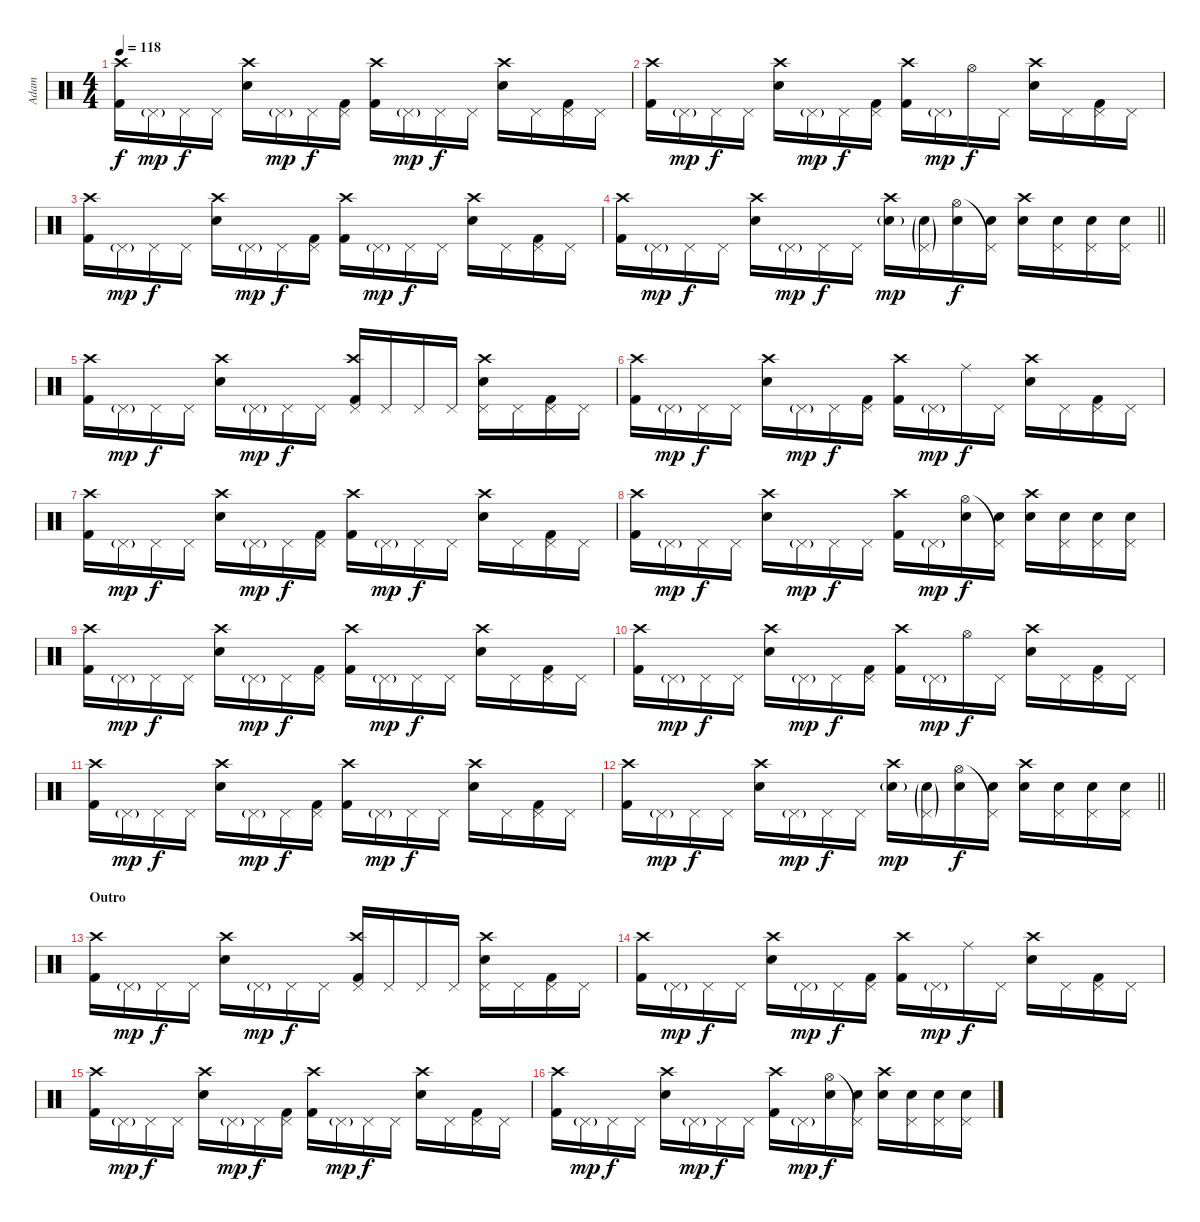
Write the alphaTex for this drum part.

\track ("Adam" "Adam") {instrument percussion}
\staff {score}
\articulation defaults
\ts (4 4)
\tempo 118
\clef neutral
\ks c
("Kick (hit) 2" "Crash high (hit)").16{dy f} "Pedal Hi-Hat (hit)"{g}.16{dy mp} "Pedal Hi-Hat (hit)".16{dy f} "Pedal Hi-Hat (hit)".16 ("Snare (hit) 2" "Crash high (hit)").16 "Pedal Hi-Hat (hit)"{g}.16{dy mp} "Pedal Hi-Hat (hit)".16{dy f} ("Pedal Hi-Hat (hit)" "Kick (hit) 2").16 ("Kick (hit) 2" "Crash high (hit)").16 "Pedal Hi-Hat (hit)"{g}.16{dy mp} "Pedal Hi-Hat (hit)".16{dy f} "Pedal Hi-Hat (hit)".16 ("Snare (hit) 2" "Crash high (hit)").16 "Pedal Hi-Hat (hit)".16 ("Pedal Hi-Hat (hit)" "Kick (hit) 2").16 "Pedal Hi-Hat (hit)".16 |
("Kick (hit) 2" "Crash high (hit)").16 "Pedal Hi-Hat (hit)"{g}.16{dy mp} "Pedal Hi-Hat (hit)".16{dy f} "Pedal Hi-Hat (hit)".16 ("Snare (hit) 2" "Crash high (hit)").16 "Pedal Hi-Hat (hit)"{g}.16{dy mp} "Pedal Hi-Hat (hit)".16{dy f} ("Pedal Hi-Hat (hit)" "Kick (hit) 2").16 ("Kick (hit) 2" "Crash high (hit)").16 "Pedal Hi-Hat (hit)"{g}.16{dy mp} "Hi-Hat (open)".16{dy f} "Pedal Hi-Hat (hit)".16 ("Snare (hit) 2" "Crash high (hit)").16 "Pedal Hi-Hat (hit)".16 ("Pedal Hi-Hat (hit)" "Kick (hit) 2").16 "Pedal Hi-Hat (hit)".16 |
("Kick (hit) 2" "Crash high (hit)").16 "Pedal Hi-Hat (hit)"{g}.16{dy mp} "Pedal Hi-Hat (hit)".16{dy f} "Pedal Hi-Hat (hit)".16 ("Snare (hit) 2" "Crash high (hit)").16 "Pedal Hi-Hat (hit)"{g}.16{dy mp} "Pedal Hi-Hat (hit)".16{dy f} ("Pedal Hi-Hat (hit)" "Kick (hit) 2").16 ("Kick (hit) 2" "Crash high (hit)").16 "Pedal Hi-Hat (hit)"{g}.16{dy mp} "Pedal Hi-Hat (hit)".16{dy f} "Pedal Hi-Hat (hit)".16 ("Snare (hit) 2" "Crash high (hit)").16 "Pedal Hi-Hat (hit)".16 ("Pedal Hi-Hat (hit)" "Kick (hit) 2").16 "Pedal Hi-Hat (hit)".16 |
\barLineRight lightlight
("Kick (hit) 2" "Crash high (hit)").16 "Pedal Hi-Hat (hit)"{g}.16{dy mp} "Pedal Hi-Hat (hit)".16{dy f} "Pedal Hi-Hat (hit)".16 ("Snare (hit) 2" "Crash high (hit)").16 "Pedal Hi-Hat (hit)"{g}.16{dy mp} "Pedal Hi-Hat (hit)".16{dy f} "Pedal Hi-Hat (hit)".16 ("Snare (hit) 2"{g} "Crash high (hit)").16{dy mp} ("Snare (hit) 2"{g} "Pedal Hi-Hat (hit)"{g}).16 ("Snare (hit) 2" "Hi-Hat (open)").16{dy f} ("Snare (hit) 2" "Pedal Hi-Hat (hit)"{t}).16 ("Snare (hit) 2" "Crash high (hit)").16 ("Snare (hit) 2" "Pedal Hi-Hat (hit)").16 ("Snare (hit) 2" "Pedal Hi-Hat (hit)").16 ("Snare (hit) 2" "Pedal Hi-Hat (hit)").16 |
("Kick (hit) 2" "Crash high (hit)").16 "Pedal Hi-Hat (hit)"{g}.16{dy mp} "Pedal Hi-Hat (hit)".16{dy f} "Pedal Hi-Hat (hit)".16 ("Snare (hit) 2" "Crash high (hit)").16 "Pedal Hi-Hat (hit)"{g}.16{dy mp} "Pedal Hi-Hat (hit)".16{dy f} "Pedal Hi-Hat (hit)".16 ("Kick (hit) 2" "Pedal Hi-Hat (hit)" "Crash high (hit)").16 "Pedal Hi-Hat (hit)".16 "Pedal Hi-Hat (hit)".16 "Pedal Hi-Hat (hit)".16 ("Snare (hit) 2" "Pedal Hi-Hat (hit)" "Crash high (hit)").16 "Pedal Hi-Hat (hit)".16 ("Pedal Hi-Hat (hit)" "Kick (hit) 2").16 "Pedal Hi-Hat (hit)".16 |
("Kick (hit) 2" "Crash high (hit)").16 "Pedal Hi-Hat (hit)"{g}.16{dy mp} "Pedal Hi-Hat (hit)".16{dy f} "Pedal Hi-Hat (hit)".16 ("Snare (hit) 2" "Crash high (hit)").16 "Pedal Hi-Hat (hit)"{g}.16{dy mp} "Pedal Hi-Hat (hit)".16{dy f} ("Pedal Hi-Hat (hit)" "Kick (hit) 2").16 ("Kick (hit) 2" "Crash high (hit)").16 "Pedal Hi-Hat (hit)"{g}.16{dy mp} "Ride (middle)".16{dy f} "Pedal Hi-Hat (hit)".16 ("Snare (hit) 2" "Crash high (hit)").16 "Pedal Hi-Hat (hit)".16 ("Pedal Hi-Hat (hit)" "Kick (hit) 2").16 "Pedal Hi-Hat (hit)".16 |
("Kick (hit) 2" "Crash high (hit)").16 "Pedal Hi-Hat (hit)"{g}.16{dy mp} "Pedal Hi-Hat (hit)".16{dy f} "Pedal Hi-Hat (hit)".16 ("Snare (hit) 2" "Crash high (hit)").16 "Pedal Hi-Hat (hit)"{g}.16{dy mp} "Pedal Hi-Hat (hit)".16{dy f} ("Pedal Hi-Hat (hit)" "Kick (hit) 2").16 ("Kick (hit) 2" "Crash high (hit)").16 "Pedal Hi-Hat (hit)"{g}.16{dy mp} "Pedal Hi-Hat (hit)".16{dy f} "Pedal Hi-Hat (hit)".16 ("Snare (hit) 2" "Crash high (hit)").16 "Pedal Hi-Hat (hit)".16 ("Pedal Hi-Hat (hit)" "Kick (hit) 2").16 "Pedal Hi-Hat (hit)".16 |
("Kick (hit) 2" "Crash high (hit)").16 "Pedal Hi-Hat (hit)"{g}.16{dy mp} "Pedal Hi-Hat (hit)".16{dy f} "Pedal Hi-Hat (hit)".16 ("Snare (hit) 2" "Crash high (hit)").16 "Pedal Hi-Hat (hit)"{g}.16{dy mp} "Pedal Hi-Hat (hit)".16{dy f} "Pedal Hi-Hat (hit)".16 ("Kick (hit) 2" "Crash high (hit)").16 "Pedal Hi-Hat (hit)"{g}.16{dy mp} ("Snare (hit) 2" "Hi-Hat (open)").16{dy f} ("Snare (hit) 2" "Pedal Hi-Hat (hit)"{t}).16 ("Snare (hit) 2" "Crash high (hit)").16 ("Snare (hit) 2" "Pedal Hi-Hat (hit)").16 ("Snare (hit) 2" "Pedal Hi-Hat (hit)").16 ("Snare (hit) 2" "Pedal Hi-Hat (hit)").16 |
("Kick (hit) 2" "Crash high (hit)").16 "Pedal Hi-Hat (hit)"{g}.16{dy mp} "Pedal Hi-Hat (hit)".16{dy f} "Pedal Hi-Hat (hit)".16 ("Snare (hit) 2" "Crash high (hit)").16 "Pedal Hi-Hat (hit)"{g}.16{dy mp} "Pedal Hi-Hat (hit)".16{dy f} ("Pedal Hi-Hat (hit)" "Kick (hit) 2").16 ("Kick (hit) 2" "Crash high (hit)").16 "Pedal Hi-Hat (hit)"{g}.16{dy mp} "Pedal Hi-Hat (hit)".16{dy f} "Pedal Hi-Hat (hit)".16 ("Snare (hit) 2" "Crash high (hit)").16 "Pedal Hi-Hat (hit)".16 ("Pedal Hi-Hat (hit)" "Kick (hit) 2").16 "Pedal Hi-Hat (hit)".16 |
("Kick (hit) 2" "Crash high (hit)").16 "Pedal Hi-Hat (hit)"{g}.16{dy mp} "Pedal Hi-Hat (hit)".16{dy f} "Pedal Hi-Hat (hit)".16 ("Snare (hit) 2" "Crash high (hit)").16 "Pedal Hi-Hat (hit)"{g}.16{dy mp} "Pedal Hi-Hat (hit)".16{dy f} ("Pedal Hi-Hat (hit)" "Kick (hit) 2").16 ("Kick (hit) 2" "Crash high (hit)").16 "Pedal Hi-Hat (hit)"{g}.16{dy mp} "Hi-Hat (open)".16{dy f} "Pedal Hi-Hat (hit)".16 ("Snare (hit) 2" "Crash high (hit)").16 "Pedal Hi-Hat (hit)".16 ("Pedal Hi-Hat (hit)" "Kick (hit) 2").16 "Pedal Hi-Hat (hit)".16 |
("Kick (hit) 2" "Crash high (hit)").16 "Pedal Hi-Hat (hit)"{g}.16{dy mp} "Pedal Hi-Hat (hit)".16{dy f} "Pedal Hi-Hat (hit)".16 ("Snare (hit) 2" "Crash high (hit)").16 "Pedal Hi-Hat (hit)"{g}.16{dy mp} "Pedal Hi-Hat (hit)".16{dy f} ("Pedal Hi-Hat (hit)" "Kick (hit) 2").16 ("Kick (hit) 2" "Crash high (hit)").16 "Pedal Hi-Hat (hit)"{g}.16{dy mp} "Pedal Hi-Hat (hit)".16{dy f} "Pedal Hi-Hat (hit)".16 ("Snare (hit) 2" "Crash high (hit)").16 "Pedal Hi-Hat (hit)".16 ("Pedal Hi-Hat (hit)" "Kick (hit) 2").16 "Pedal Hi-Hat (hit)".16 |
\barLineRight lightlight
("Kick (hit) 2" "Crash high (hit)").16 "Pedal Hi-Hat (hit)"{g}.16{dy mp} "Pedal Hi-Hat (hit)".16{dy f} "Pedal Hi-Hat (hit)".16 ("Snare (hit) 2" "Crash high (hit)").16 "Pedal Hi-Hat (hit)"{g}.16{dy mp} "Pedal Hi-Hat (hit)".16{dy f} "Pedal Hi-Hat (hit)".16 ("Snare (hit) 2"{g} "Crash high (hit)").16{dy mp} ("Snare (hit) 2"{g} "Pedal Hi-Hat (hit)"{g}).16 ("Snare (hit) 2" "Hi-Hat (open)").16{dy f} ("Snare (hit) 2" "Pedal Hi-Hat (hit)"{t}).16 ("Snare (hit) 2" "Crash high (hit)").16 ("Snare (hit) 2" "Pedal Hi-Hat (hit)").16 ("Snare (hit) 2" "Pedal Hi-Hat (hit)").16 ("Snare (hit) 2" "Pedal Hi-Hat (hit)").16 |
\section ("" "Outro")
("Kick (hit) 2" "Crash high (hit)").16 "Pedal Hi-Hat (hit)"{g}.16{dy mp} "Pedal Hi-Hat (hit)".16{dy f} "Pedal Hi-Hat (hit)".16 ("Snare (hit) 2" "Crash high (hit)").16 "Pedal Hi-Hat (hit)"{g}.16{dy mp} "Pedal Hi-Hat (hit)".16{dy f} "Pedal Hi-Hat (hit)".16 ("Kick (hit) 2" "Pedal Hi-Hat (hit)" "Crash high (hit)").16 "Pedal Hi-Hat (hit)".16 "Pedal Hi-Hat (hit)".16 "Pedal Hi-Hat (hit)".16 ("Snare (hit) 2" "Pedal Hi-Hat (hit)" "Crash high (hit)").16 "Pedal Hi-Hat (hit)".16 ("Pedal Hi-Hat (hit)" "Kick (hit) 2").16 "Pedal Hi-Hat (hit)".16 |
("Kick (hit) 2" "Crash high (hit)").16 "Pedal Hi-Hat (hit)"{g}.16{dy mp} "Pedal Hi-Hat (hit)".16{dy f} "Pedal Hi-Hat (hit)".16 ("Snare (hit) 2" "Crash high (hit)").16 "Pedal Hi-Hat (hit)"{g}.16{dy mp} "Pedal Hi-Hat (hit)".16{dy f} ("Pedal Hi-Hat (hit)" "Kick (hit) 2").16 ("Kick (hit) 2" "Crash high (hit)").16 "Pedal Hi-Hat (hit)"{g}.16{dy mp} "Ride (middle)".16{dy f} "Pedal Hi-Hat (hit)".16 ("Snare (hit) 2" "Crash high (hit)").16 "Pedal Hi-Hat (hit)".16 ("Pedal Hi-Hat (hit)" "Kick (hit) 2").16 "Pedal Hi-Hat (hit)".16 |
("Kick (hit) 2" "Crash high (hit)").16 "Pedal Hi-Hat (hit)"{g}.16{dy mp} "Pedal Hi-Hat (hit)".16{dy f} "Pedal Hi-Hat (hit)".16 ("Snare (hit) 2" "Crash high (hit)").16 "Pedal Hi-Hat (hit)"{g}.16{dy mp} "Pedal Hi-Hat (hit)".16{dy f} ("Pedal Hi-Hat (hit)" "Kick (hit) 2").16 ("Kick (hit) 2" "Crash high (hit)").16 "Pedal Hi-Hat (hit)"{g}.16{dy mp} "Pedal Hi-Hat (hit)".16{dy f} "Pedal Hi-Hat (hit)".16 ("Snare (hit) 2" "Crash high (hit)").16 "Pedal Hi-Hat (hit)".16 ("Pedal Hi-Hat (hit)" "Kick (hit) 2").16 "Pedal Hi-Hat (hit)".16 |
("Kick (hit) 2" "Crash high (hit)").16 "Pedal Hi-Hat (hit)"{g}.16{dy mp} "Pedal Hi-Hat (hit)".16{dy f} "Pedal Hi-Hat (hit)".16 ("Snare (hit) 2" "Crash high (hit)").16 "Pedal Hi-Hat (hit)"{g}.16{dy mp} "Pedal Hi-Hat (hit)".16{dy f} "Pedal Hi-Hat (hit)".16 ("Kick (hit) 2" "Crash high (hit)").16 "Pedal Hi-Hat (hit)"{g}.16{dy mp} ("Snare (hit) 2" "Hi-Hat (open)").16{dy f} ("Snare (hit) 2" "Pedal Hi-Hat (hit)"{t}).16 ("Snare (hit) 2" "Crash high (hit)").16 ("Snare (hit) 2" "Pedal Hi-Hat (hit)").16 ("Snare (hit) 2" "Pedal Hi-Hat (hit)").16 ("Snare (hit) 2" "Pedal Hi-Hat (hit)").16
